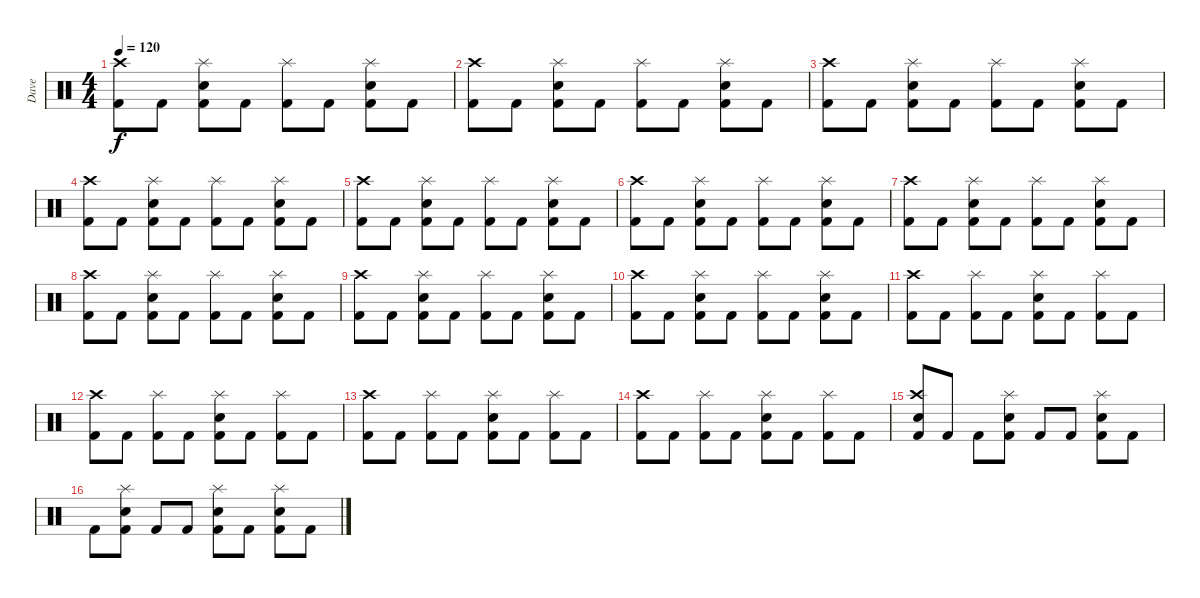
\track ("Dave" "Dave") {instrument percussion}
\staff {score}
\articulation defaults
\ts (4 4)
\tempo 120
\clef neutral
\ks c
("Kick (hit) 2" "Crash high (hit)").8{dy f} "Kick (hit) 2".8 ("Kick (hit) 2" "Snare (hit) 2" "Splash (hit)").8 "Kick (hit) 2".8 ("Kick (hit) 2" "Splash (hit)").8 "Kick (hit) 2".8 ("Kick (hit) 2" "Snare (hit) 2" "Splash (hit)").8 "Kick (hit) 2".8 |
("Kick (hit) 2" "Crash high (hit)").8 "Kick (hit) 2".8 ("Kick (hit) 2" "Snare (hit) 2" "Splash (hit)").8 "Kick (hit) 2".8 ("Kick (hit) 2" "Splash (hit)").8 "Kick (hit) 2".8 ("Kick (hit) 2" "Snare (hit) 2" "Splash (hit)").8 "Kick (hit) 2".8 |
("Kick (hit) 2" "Crash high (hit)").8 "Kick (hit) 2".8 ("Kick (hit) 2" "Snare (hit) 2" "Splash (hit)").8 "Kick (hit) 2".8 ("Kick (hit) 2" "Splash (hit)").8 "Kick (hit) 2".8 ("Kick (hit) 2" "Snare (hit) 2" "Splash (hit)").8 "Kick (hit) 2".8 |
("Kick (hit) 2" "Crash high (hit)").8 "Kick (hit) 2".8 ("Kick (hit) 2" "Snare (hit) 2" "Splash (hit)").8 "Kick (hit) 2".8 ("Kick (hit) 2" "Splash (hit)").8 "Kick (hit) 2".8 ("Kick (hit) 2" "Snare (hit) 2" "Splash (hit)").8 "Kick (hit) 2".8 |
("Kick (hit) 2" "Crash high (hit)").8 "Kick (hit) 2".8 ("Kick (hit) 2" "Snare (hit) 2" "Splash (hit)").8 "Kick (hit) 2".8 ("Kick (hit) 2" "Splash (hit)").8 "Kick (hit) 2".8 ("Kick (hit) 2" "Snare (hit) 2" "Splash (hit)").8 "Kick (hit) 2".8 |
("Kick (hit) 2" "Crash high (hit)").8 "Kick (hit) 2".8 ("Kick (hit) 2" "Snare (hit) 2" "Splash (hit)").8 "Kick (hit) 2".8 ("Kick (hit) 2" "Splash (hit)").8 "Kick (hit) 2".8 ("Kick (hit) 2" "Snare (hit) 2" "Splash (hit)").8 "Kick (hit) 2".8 |
("Kick (hit) 2" "Crash high (hit)").8 "Kick (hit) 2".8 ("Kick (hit) 2" "Snare (hit) 2" "Splash (hit)").8 "Kick (hit) 2".8 ("Kick (hit) 2" "Splash (hit)").8 "Kick (hit) 2".8 ("Kick (hit) 2" "Snare (hit) 2" "Splash (hit)").8 "Kick (hit) 2".8 |
("Kick (hit) 2" "Crash high (hit)").8 "Kick (hit) 2".8 ("Kick (hit) 2" "Snare (hit) 2" "Splash (hit)").8 "Kick (hit) 2".8 ("Kick (hit) 2" "Splash (hit)").8 "Kick (hit) 2".8 ("Kick (hit) 2" "Snare (hit) 2" "Splash (hit)").8 "Kick (hit) 2".8 |
("Kick (hit) 2" "Crash high (hit)").8 "Kick (hit) 2".8 ("Kick (hit) 2" "Snare (hit) 2" "Splash (hit)").8 "Kick (hit) 2".8 ("Kick (hit) 2" "Splash (hit)").8 "Kick (hit) 2".8 ("Kick (hit) 2" "Snare (hit) 2" "Splash (hit)").8 "Kick (hit) 2".8 |
("Kick (hit) 2" "Crash high (hit)").8 "Kick (hit) 2".8 ("Kick (hit) 2" "Snare (hit) 2" "Splash (hit)").8 "Kick (hit) 2".8 ("Kick (hit) 2" "Splash (hit)").8 "Kick (hit) 2".8 ("Kick (hit) 2" "Snare (hit) 2" "Splash (hit)").8 "Kick (hit) 2".8 |
("Kick (hit) 2" "Crash high (hit)").8 "Kick (hit) 2".8 ("Kick (hit) 2" "Splash (hit)").8 "Kick (hit) 2".8 ("Kick (hit) 2" "Snare (hit) 2" "Splash (hit)").8 "Kick (hit) 2".8 ("Kick (hit) 2" "Splash (hit)").8 "Kick (hit) 2".8 |
("Kick (hit) 2" "Crash high (hit)").8 "Kick (hit) 2".8 ("Kick (hit) 2" "Splash (hit)").8 "Kick (hit) 2".8 ("Kick (hit) 2" "Snare (hit) 2" "Splash (hit)").8 "Kick (hit) 2".8 ("Kick (hit) 2" "Splash (hit)").8 "Kick (hit) 2".8 |
("Kick (hit) 2" "Crash high (hit)").8 "Kick (hit) 2".8 ("Kick (hit) 2" "Splash (hit)").8 "Kick (hit) 2".8 ("Kick (hit) 2" "Snare (hit) 2" "Splash (hit)").8 "Kick (hit) 2".8 ("Kick (hit) 2" "Splash (hit)").8 "Kick (hit) 2".8 |
("Kick (hit) 2" "Crash high (hit)").8 "Kick (hit) 2".8 ("Kick (hit) 2" "Splash (hit)").8 "Kick (hit) 2".8 ("Kick (hit) 2" "Snare (hit) 2" "Splash (hit)").8 "Kick (hit) 2".8 ("Kick (hit) 2" "Splash (hit)").8 "Kick (hit) 2".8 |
("Kick (hit) 2" "Snare (hit) 2" "Crash high (hit)").8 "Kick (hit) 2".8 "Kick (hit) 2".8 ("Kick (hit) 2" "Snare (hit) 2" "Splash (hit)").8 "Kick (hit) 2".8 "Kick (hit) 2".8 ("Kick (hit) 2" "Snare (hit) 2" "Splash (hit)").8 "Kick (hit) 2".8 |
"Kick (hit) 2".8 ("Kick (hit) 2" "Snare (hit) 2" "Splash (hit)").8 "Kick (hit) 2".8 "Kick (hit) 2".8 ("Kick (hit) 2" "Snare (hit) 2" "Splash (hit)").8 "Kick (hit) 2".8 ("Kick (hit) 2" "Snare (hit) 2" "Splash (hit)").8 "Kick (hit) 2".8
